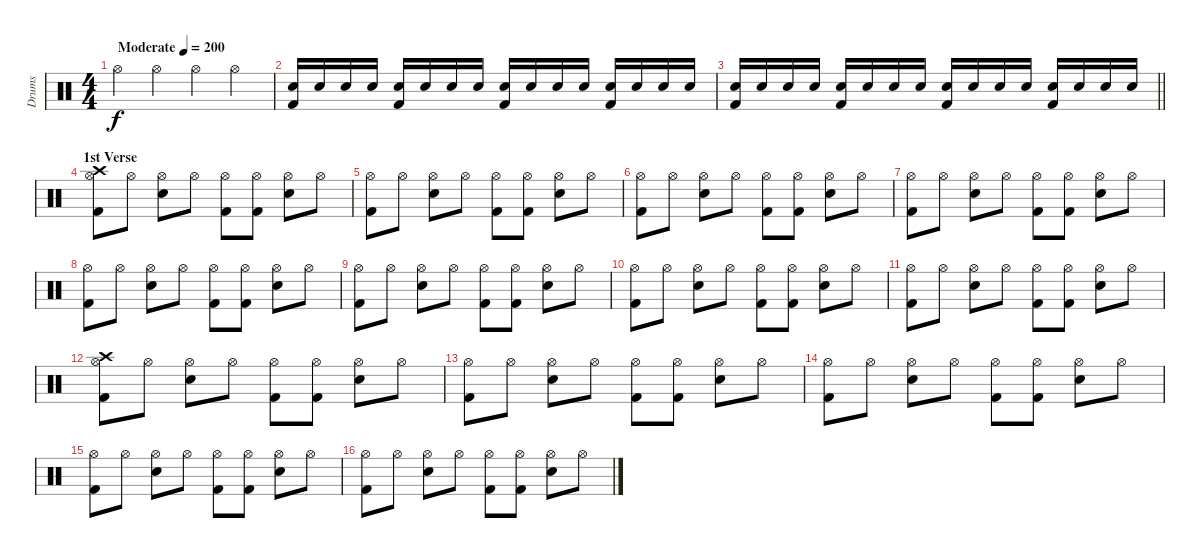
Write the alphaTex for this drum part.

\track ("Drums" "Drums") {instrument percussion}
\staff {score}
\articulation defaults
\ts (4 4)
\tempo (200 "Moderate")
\clef neutral
\ks c "Hi-Hat (open)".4{dy f} "Hi-Hat (open)".4 "Hi-Hat (open)".4 "Hi-Hat (open)".4
|
("Electric Snare (hit)" "Kick (hit) 2").16 "Electric Snare (hit)".16 "Electric Snare (hit)".16 "Electric Snare (hit)".16 ("Electric Snare (hit)" "Kick (hit) 2").16 "Electric Snare (hit)".16 "Electric Snare (hit)".16 "Electric Snare (hit)".16 ("Electric Snare (hit)" "Kick (hit) 2").16 "Electric Snare (hit)".16 "Electric Snare (hit)".16 "Electric Snare (hit)".16 ("Electric Snare (hit)" "Kick (hit) 2").16 "Electric Snare (hit)".16 "Electric Snare (hit)".16 "Electric Snare (hit)".16 |
\barLineRight lightlight
("Electric Snare (hit)" "Kick (hit) 2").16 "Electric Snare (hit)".16 "Electric Snare (hit)".16 "Electric Snare (hit)".16 ("Electric Snare (hit)" "Kick (hit) 2").16 "Electric Snare (hit)".16 "Electric Snare (hit)".16 "Electric Snare (hit)".16 ("Electric Snare (hit)" "Kick (hit) 2").16 "Electric Snare (hit)".16 "Electric Snare (hit)".16 "Electric Snare (hit)".16 ("Electric Snare (hit)" "Kick (hit) 2").16 "Electric Snare (hit)".16 "Electric Snare (hit)".16 "Electric Snare (hit)".16 |
\section ("" "1st Verse")
("Hi-Hat (open)" "Crash high (hit)" "Kick (hit) 2").8 "Hi-Hat (open)".8 ("Hi-Hat (open)" "Electric Snare (hit)").8 "Hi-Hat (open)".8 ("Hi-Hat (open)" "Kick (hit) 2").8 ("Hi-Hat (open)" "Kick (hit) 2").8 ("Hi-Hat (open)" "Electric Snare (hit)").8 "Hi-Hat (open)".8 |
("Hi-Hat (open)" "Kick (hit) 2").8 "Hi-Hat (open)".8 ("Hi-Hat (open)" "Electric Snare (hit)").8 "Hi-Hat (open)".8 ("Hi-Hat (open)" "Kick (hit) 2").8 ("Hi-Hat (open)" "Kick (hit) 2").8 ("Hi-Hat (open)" "Electric Snare (hit)").8 "Hi-Hat (open)".8 |
("Hi-Hat (open)" "Kick (hit) 2").8 "Hi-Hat (open)".8 ("Hi-Hat (open)" "Electric Snare (hit)").8 "Hi-Hat (open)".8 ("Hi-Hat (open)" "Kick (hit) 2").8 ("Hi-Hat (open)" "Kick (hit) 2").8 ("Hi-Hat (open)" "Electric Snare (hit)").8 "Hi-Hat (open)".8 |
("Hi-Hat (open)" "Kick (hit) 2").8 "Hi-Hat (open)".8 ("Hi-Hat (open)" "Electric Snare (hit)").8 "Hi-Hat (open)".8 ("Hi-Hat (open)" "Kick (hit) 2").8 ("Hi-Hat (open)" "Kick (hit) 2").8 ("Hi-Hat (open)" "Electric Snare (hit)").8 "Hi-Hat (open)".8 |
("Hi-Hat (open)" "Kick (hit) 2").8 "Hi-Hat (open)".8 ("Hi-Hat (open)" "Electric Snare (hit)").8 "Hi-Hat (open)".8 ("Hi-Hat (open)" "Kick (hit) 2").8 ("Hi-Hat (open)" "Kick (hit) 2").8 ("Hi-Hat (open)" "Electric Snare (hit)").8 "Hi-Hat (open)".8 |
("Hi-Hat (open)" "Kick (hit) 2").8 "Hi-Hat (open)".8 ("Hi-Hat (open)" "Electric Snare (hit)").8 "Hi-Hat (open)".8 ("Hi-Hat (open)" "Kick (hit) 2").8 ("Hi-Hat (open)" "Kick (hit) 2").8 ("Hi-Hat (open)" "Electric Snare (hit)").8 "Hi-Hat (open)".8 |
("Hi-Hat (open)" "Kick (hit) 2").8 "Hi-Hat (open)".8 ("Hi-Hat (open)" "Electric Snare (hit)").8 "Hi-Hat (open)".8 ("Hi-Hat (open)" "Kick (hit) 2").8 ("Hi-Hat (open)" "Kick (hit) 2").8 ("Hi-Hat (open)" "Electric Snare (hit)").8 "Hi-Hat (open)".8 |
("Hi-Hat (open)" "Kick (hit) 2").8 "Hi-Hat (open)".8 ("Hi-Hat (open)" "Electric Snare (hit)").8 "Hi-Hat (open)".8 ("Hi-Hat (open)" "Kick (hit) 2").8 ("Hi-Hat (open)" "Kick (hit) 2").8 ("Hi-Hat (open)" "Electric Snare (hit)").8 "Hi-Hat (open)".8 |
("Hi-Hat (open)" "Crash high (hit)" "Kick (hit) 2").8 "Hi-Hat (open)".8 ("Hi-Hat (open)" "Electric Snare (hit)").8 "Hi-Hat (open)".8 ("Hi-Hat (open)" "Kick (hit) 2").8 ("Hi-Hat (open)" "Kick (hit) 2").8 ("Hi-Hat (open)" "Electric Snare (hit)").8 "Hi-Hat (open)".8 |
("Hi-Hat (open)" "Kick (hit) 2").8 "Hi-Hat (open)".8 ("Hi-Hat (open)" "Electric Snare (hit)").8 "Hi-Hat (open)".8 ("Hi-Hat (open)" "Kick (hit) 2").8 ("Hi-Hat (open)" "Kick (hit) 2").8 ("Hi-Hat (open)" "Electric Snare (hit)").8 "Hi-Hat (open)".8 |
("Hi-Hat (open)" "Kick (hit) 2").8 "Hi-Hat (open)".8 ("Hi-Hat (open)" "Electric Snare (hit)").8 "Hi-Hat (open)".8 ("Hi-Hat (open)" "Kick (hit) 2").8 ("Hi-Hat (open)" "Kick (hit) 2").8 ("Hi-Hat (open)" "Electric Snare (hit)").8 "Hi-Hat (open)".8 |
("Hi-Hat (open)" "Kick (hit) 2").8 "Hi-Hat (open)".8 ("Hi-Hat (open)" "Electric Snare (hit)").8 "Hi-Hat (open)".8 ("Hi-Hat (open)" "Kick (hit) 2").8 ("Hi-Hat (open)" "Kick (hit) 2").8 ("Hi-Hat (open)" "Electric Snare (hit)").8 "Hi-Hat (open)".8 |
("Hi-Hat (open)" "Kick (hit) 2").8 "Hi-Hat (open)".8 ("Hi-Hat (open)" "Electric Snare (hit)").8 "Hi-Hat (open)".8 ("Hi-Hat (open)" "Kick (hit) 2").8 ("Hi-Hat (open)" "Kick (hit) 2").8 ("Hi-Hat (open)" "Electric Snare (hit)").8 "Hi-Hat (open)".8
